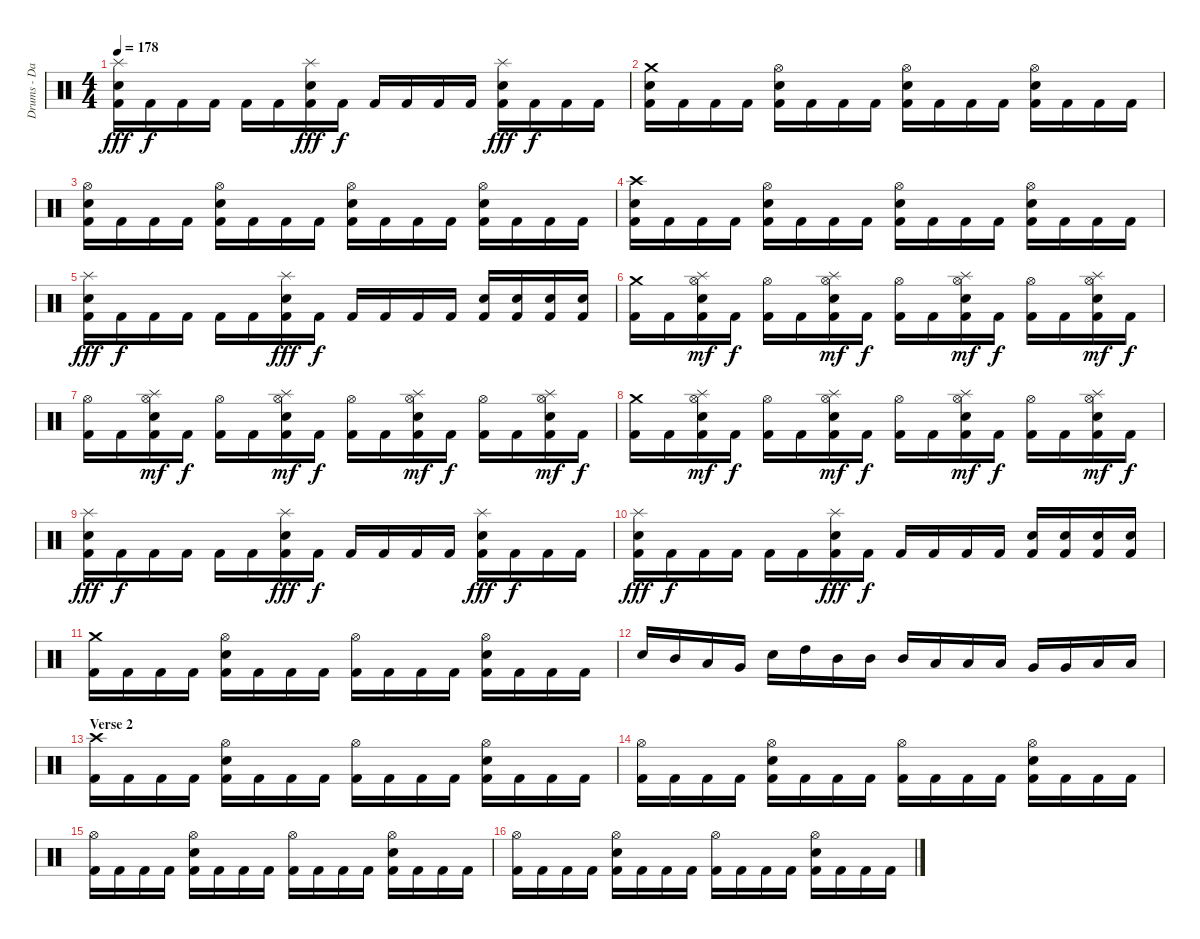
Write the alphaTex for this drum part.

\track ("Drums - Daniel Zimmermann" "Drums - Da") {instrument percussion}
\staff {score}
\articulation defaults
\ts (4 4)
\tempo 178
\clef neutral
\ks c
("Kick (hit) 2" "Electric Snare (hit)" "Splash (hit)").16{dy fff} "Kick (hit) 2".16{dy f} "Kick (hit) 2".16 "Kick (hit) 2".16 "Kick (hit) 2".16 "Kick (hit) 2".16 ("Kick (hit) 2" "Electric Snare (hit)" "Splash (hit)").16{dy fff} "Kick (hit) 2".16{dy f} "Kick (hit) 2".16 "Kick (hit) 2".16 "Kick (hit) 2".16 "Kick (hit) 2".16 ("Kick (hit) 2" "Electric Snare (hit)" "Splash (hit)").16{dy fff} "Kick (hit) 2".16{dy f} "Kick (hit) 2".16 "Kick (hit) 2".16 |
("Kick (hit) 2" "Electric Snare (hit)" "Crash medium (hit)").16 "Kick (hit) 2".16 "Kick (hit) 2".16 "Kick (hit) 2".16 ("Kick (hit) 2" "Electric Snare (hit)" "Hi-Hat (open)").16 "Kick (hit) 2".16 "Kick (hit) 2".16 "Kick (hit) 2".16 ("Kick (hit) 2" "Electric Snare (hit)" "Hi-Hat (open)").16 "Kick (hit) 2".16 "Kick (hit) 2".16 "Kick (hit) 2".16 ("Kick (hit) 2" "Electric Snare (hit)" "Hi-Hat (open)").16 "Kick (hit) 2".16 "Kick (hit) 2".16 "Kick (hit) 2".16 |
("Kick (hit) 2" "Electric Snare (hit)" "Hi-Hat (open)").16 "Kick (hit) 2".16 "Kick (hit) 2".16 "Kick (hit) 2".16 ("Kick (hit) 2" "Electric Snare (hit)" "Hi-Hat (open)").16 "Kick (hit) 2".16 "Kick (hit) 2".16 "Kick (hit) 2".16 ("Kick (hit) 2" "Electric Snare (hit)" "Hi-Hat (open)").16 "Kick (hit) 2".16 "Kick (hit) 2".16 "Kick (hit) 2".16 ("Kick (hit) 2" "Electric Snare (hit)" "Hi-Hat (open)").16 "Kick (hit) 2".16 "Kick (hit) 2".16 "Kick (hit) 2".16 |
("Kick (hit) 2" "Electric Snare (hit)" "Crash high (hit)").16 "Kick (hit) 2".16 "Kick (hit) 2".16 "Kick (hit) 2".16 ("Kick (hit) 2" "Electric Snare (hit)" "Hi-Hat (open)").16 "Kick (hit) 2".16 "Kick (hit) 2".16 "Kick (hit) 2".16 ("Kick (hit) 2" "Electric Snare (hit)" "Hi-Hat (open)").16 "Kick (hit) 2".16 "Kick (hit) 2".16 "Kick (hit) 2".16 ("Kick (hit) 2" "Electric Snare (hit)" "Hi-Hat (open)").16 "Kick (hit) 2".16 "Kick (hit) 2".16 "Kick (hit) 2".16 |
("Kick (hit) 2" "Electric Snare (hit)" "Splash (hit)").16{dy fff} "Kick (hit) 2".16{dy f} "Kick (hit) 2".16 "Kick (hit) 2".16 "Kick (hit) 2".16 "Kick (hit) 2".16 ("Kick (hit) 2" "Electric Snare (hit)" "Splash (hit)").16{dy fff} "Kick (hit) 2".16{dy f} "Kick (hit) 2".16 "Kick (hit) 2".16 "Kick (hit) 2".16 "Kick (hit) 2".16 ("Kick (hit) 2" "Electric Snare (hit)").16 ("Kick (hit) 2" "Electric Snare (hit)").16 ("Kick (hit) 2" "Electric Snare (hit)").16 ("Kick (hit) 2" "Electric Snare (hit)").16 |
("Kick (hit) 2" "Crash medium (hit)").16 "Kick (hit) 2".16 ("Kick (hit) 2" "Electric Snare (hit)" "Hi-Hat (open)" "Splash (hit)").16{dy mf} "Kick (hit) 2".16{dy f} ("Kick (hit) 2" "Hi-Hat (open)").16 "Kick (hit) 2".16 ("Kick (hit) 2" "Electric Snare (hit)" "Hi-Hat (open)" "Splash (hit)").16{dy mf} "Kick (hit) 2".16{dy f} ("Kick (hit) 2" "Hi-Hat (open)").16 "Kick (hit) 2".16 ("Kick (hit) 2" "Electric Snare (hit)" "Hi-Hat (open)" "Splash (hit)").16{dy mf} "Kick (hit) 2".16{dy f} ("Kick (hit) 2" "Hi-Hat (open)").16 "Kick (hit) 2".16 ("Kick (hit) 2" "Electric Snare (hit)" "Hi-Hat (open)" "Splash (hit)").16{dy mf} "Kick (hit) 2".16{dy f} |
("Kick (hit) 2" "Hi-Hat (open)").16 "Kick (hit) 2".16 ("Kick (hit) 2" "Electric Snare (hit)" "Hi-Hat (open)" "Splash (hit)").16{dy mf} "Kick (hit) 2".16{dy f} ("Kick (hit) 2" "Hi-Hat (open)").16 "Kick (hit) 2".16 ("Kick (hit) 2" "Electric Snare (hit)" "Hi-Hat (open)" "Splash (hit)").16{dy mf} "Kick (hit) 2".16{dy f} ("Kick (hit) 2" "Hi-Hat (open)").16 "Kick (hit) 2".16 ("Kick (hit) 2" "Electric Snare (hit)" "Hi-Hat (open)" "Splash (hit)").16{dy mf} "Kick (hit) 2".16{dy f} ("Kick (hit) 2" "Hi-Hat (open)").16 "Kick (hit) 2".16 ("Kick (hit) 2" "Electric Snare (hit)" "Hi-Hat (open)" "Splash (hit)").16{dy mf} "Kick (hit) 2".16{dy f} |
("Kick (hit) 2" "Crash medium (hit)").16 "Kick (hit) 2".16 ("Kick (hit) 2" "Electric Snare (hit)" "Hi-Hat (open)" "Splash (hit)").16{dy mf} "Kick (hit) 2".16{dy f} ("Kick (hit) 2" "Hi-Hat (open)").16 "Kick (hit) 2".16 ("Kick (hit) 2" "Electric Snare (hit)" "Hi-Hat (open)" "Splash (hit)").16{dy mf} "Kick (hit) 2".16{dy f} ("Kick (hit) 2" "Hi-Hat (open)").16 "Kick (hit) 2".16 ("Kick (hit) 2" "Electric Snare (hit)" "Hi-Hat (open)" "Splash (hit)").16{dy mf} "Kick (hit) 2".16{dy f} ("Kick (hit) 2" "Hi-Hat (open)").16 "Kick (hit) 2".16 ("Kick (hit) 2" "Electric Snare (hit)" "Hi-Hat (open)" "Splash (hit)").16{dy mf} "Kick (hit) 2".16{dy f} |
("Kick (hit) 2" "Electric Snare (hit)" "Splash (hit)").16{dy fff} "Kick (hit) 2".16{dy f} "Kick (hit) 2".16 "Kick (hit) 2".16 "Kick (hit) 2".16 "Kick (hit) 2".16 ("Kick (hit) 2" "Electric Snare (hit)" "Splash (hit)").16{dy fff} "Kick (hit) 2".16{dy f} "Kick (hit) 2".16 "Kick (hit) 2".16 "Kick (hit) 2".16 "Kick (hit) 2".16 ("Kick (hit) 2" "Electric Snare (hit)" "Splash (hit)").16{dy fff} "Kick (hit) 2".16{dy f} "Kick (hit) 2".16 "Kick (hit) 2".16 |
("Kick (hit) 2" "Electric Snare (hit)" "Splash (hit)").16{dy fff} "Kick (hit) 2".16{dy f} "Kick (hit) 2".16 "Kick (hit) 2".16 "Kick (hit) 2".16 "Kick (hit) 2".16 ("Kick (hit) 2" "Electric Snare (hit)" "Splash (hit)").16{dy fff} "Kick (hit) 2".16{dy f} "Kick (hit) 2".16 "Kick (hit) 2".16 "Kick (hit) 2".16 "Kick (hit) 2".16 ("Kick (hit) 2" "Electric Snare (hit)").16 ("Kick (hit) 2" "Electric Snare (hit)").16 ("Kick (hit) 2" "Electric Snare (hit)").16 ("Kick (hit) 2" "Electric Snare (hit)").16 |
("Kick (hit) 2" "Crash medium (hit)").16 "Kick (hit) 2".16 "Kick (hit) 2".16 "Kick (hit) 2".16 ("Kick (hit) 2" "Electric Snare (hit)" "Hi-Hat (open)").16 "Kick (hit) 2".16 "Kick (hit) 2".16 "Kick (hit) 2".16 ("Kick (hit) 2" "Hi-Hat (open)").16 "Kick (hit) 2".16 "Kick (hit) 2".16 "Kick (hit) 2".16 ("Kick (hit) 2" "Electric Snare (hit)" "Hi-Hat (open)").16 "Kick (hit) 2".16 "Kick (hit) 2".16 "Kick (hit) 2".16 |
"Electric Snare (hit)".16 "Mid Tom (hit)".16 "Low Tom (hit)".16 "Very Low Tom (hit)".16 "Electric Snare (hit)".16 "High Tom (hit)".16 "Mid Tom (hit)".16 "Mid Tom (hit)".16 "Mid Tom (hit)".16 "Low Tom (hit)".16 "Low Tom (hit)".16 "Low Tom (hit)".16 "Very Low Tom (hit)".16 "Very Low Tom (hit)".16 "Low Floor Tom (hit)".16 "Low Floor Tom (hit)".16 |
\section ("" "Verse 2")
("Kick (hit) 2" "Crash high (hit)").16 "Kick (hit) 2".16 "Kick (hit) 2".16 "Kick (hit) 2".16 ("Kick (hit) 2" "Electric Snare (hit)" "Hi-Hat (open)").16 "Kick (hit) 2".16 "Kick (hit) 2".16 "Kick (hit) 2".16 ("Kick (hit) 2" "Hi-Hat (open)").16 "Kick (hit) 2".16 "Kick (hit) 2".16 "Kick (hit) 2".16 ("Kick (hit) 2" "Electric Snare (hit)" "Hi-Hat (open)").16 "Kick (hit) 2".16 "Kick (hit) 2".16 "Kick (hit) 2".16 |
("Kick (hit) 2" "Hi-Hat (open)").16 "Kick (hit) 2".16 "Kick (hit) 2".16 "Kick (hit) 2".16 ("Kick (hit) 2" "Electric Snare (hit)" "Hi-Hat (open)").16 "Kick (hit) 2".16 "Kick (hit) 2".16 "Kick (hit) 2".16 ("Kick (hit) 2" "Hi-Hat (open)").16 "Kick (hit) 2".16 "Kick (hit) 2".16 "Kick (hit) 2".16 ("Kick (hit) 2" "Electric Snare (hit)" "Hi-Hat (open)").16 "Kick (hit) 2".16 "Kick (hit) 2".16 "Kick (hit) 2".16 |
("Kick (hit) 2" "Hi-Hat (open)").16 "Kick (hit) 2".16 "Kick (hit) 2".16 "Kick (hit) 2".16 ("Kick (hit) 2" "Electric Snare (hit)" "Hi-Hat (open)").16 "Kick (hit) 2".16 "Kick (hit) 2".16 "Kick (hit) 2".16 ("Kick (hit) 2" "Hi-Hat (open)").16 "Kick (hit) 2".16 "Kick (hit) 2".16 "Kick (hit) 2".16 ("Kick (hit) 2" "Electric Snare (hit)" "Hi-Hat (open)").16 "Kick (hit) 2".16 "Kick (hit) 2".16 "Kick (hit) 2".16 |
("Kick (hit) 2" "Hi-Hat (open)").16 "Kick (hit) 2".16 "Kick (hit) 2".16 "Kick (hit) 2".16 ("Kick (hit) 2" "Electric Snare (hit)" "Hi-Hat (open)").16 "Kick (hit) 2".16 "Kick (hit) 2".16 "Kick (hit) 2".16 ("Kick (hit) 2" "Hi-Hat (open)").16 "Kick (hit) 2".16 "Kick (hit) 2".16 "Kick (hit) 2".16 ("Kick (hit) 2" "Electric Snare (hit)" "Hi-Hat (open)").16 "Kick (hit) 2".16 "Kick (hit) 2".16 "Kick (hit) 2".16
